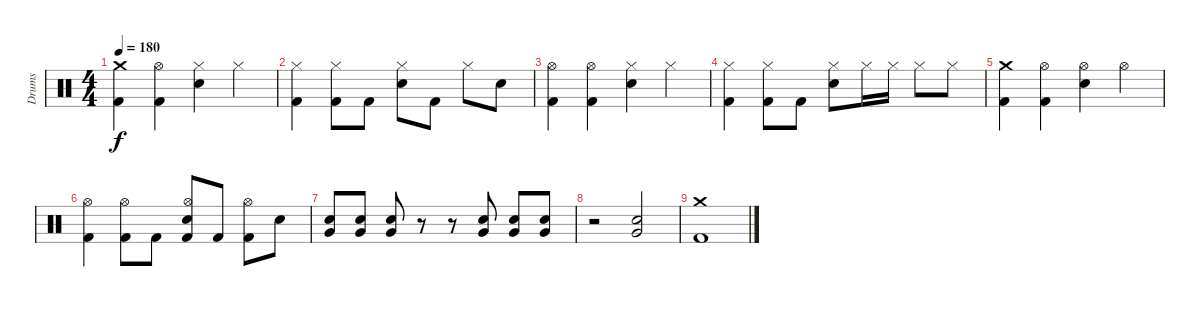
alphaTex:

\track ("Drums" "Drums") {instrument percussion}
\staff {score}
\articulation defaults
\ts (4 4)
\tempo 180
\clef neutral
\ks c
("Crash medium (hit)" "Kick (hit) 2").4{dy f} ("Hi-Hat (open)" "Kick (hit) 2").4 ("Hi-Hat (closed)" "Electric Snare (hit)").4 "Hi-Hat (closed)".4 |
("Hi-Hat (closed)" "Kick (hit) 2").4 ("Hi-Hat (closed)" "Kick (hit) 2").8 "Kick (hit) 2".8 ("Hi-Hat (closed)" "Electric Snare (hit)").8 "Kick (hit) 2".8 "Hi-Hat (closed)".8 "Electric Snare (hit)".8 |
("Hi-Hat (open)" "Kick (hit) 2").4 ("Hi-Hat (open)" "Kick (hit) 2").4 ("Hi-Hat (closed)" "Electric Snare (hit)").4 "Hi-Hat (closed)".4 |
("Hi-Hat (closed)" "Kick (hit) 2").4 ("Hi-Hat (closed)" "Kick (hit) 2").8 "Kick (hit) 2".8 ("Hi-Hat (closed)" "Electric Snare (hit)").8 "Hi-Hat (closed)".16 "Hi-Hat (closed)".16 "Hi-Hat (closed)".8 "Hi-Hat (closed)".8 |
("Crash medium (hit)" "Kick (hit) 2").4 ("Hi-Hat (open)" "Kick (hit) 2").4 ("Hi-Hat (open)" "Electric Snare (hit)").4 "Hi-Hat (open)".4 |
("Hi-Hat (open)" "Kick (hit) 2").4 ("Hi-Hat (open)" "Kick (hit) 2").8 "Kick (hit) 2".8 ("Hi-Hat (open)" "Electric Snare (hit)" "Kick (hit) 2").8 "Kick (hit) 2".8 ("Hi-Hat (open)" "Kick (hit) 2").8 "Electric Snare (hit)".8 |
("Very Low Tom (hit)" "Electric Snare (hit)").8 ("Very Low Tom (hit)" "Electric Snare (hit)").8 ("Very Low Tom (hit)" "Electric Snare (hit)").8 r.8 r.8 ("Very Low Tom (hit)" "Electric Snare (hit)").8 ("Very Low Tom (hit)" "Electric Snare (hit)").8 ("Very Low Tom (hit)" "Electric Snare (hit)").8 |
r.2 ("Very Low Tom (hit)" "Electric Snare (hit)").2 |
("Crash medium (hit)" "Kick (hit) 2").1
